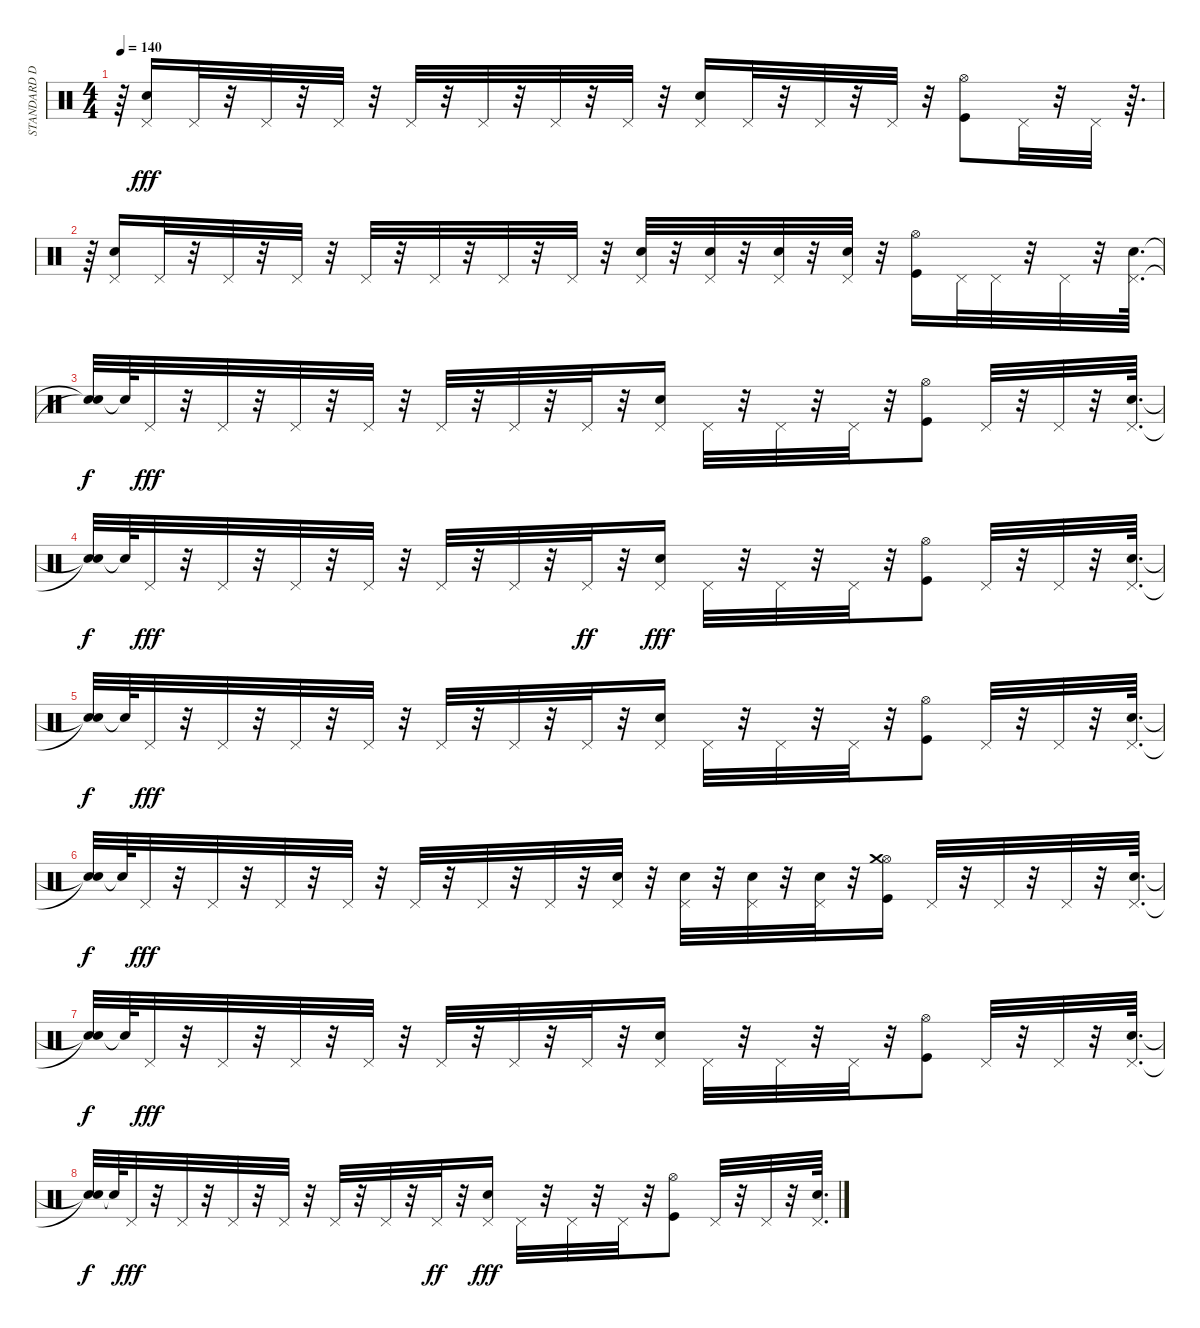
\track ("STANDARD DRUMS" "STANDARD D") {instrument percussion}
\staff {score}
\articulation defaults
\ts (4 4)
\tempo 140
\clef neutral
\ks c
r.64{dy fff} ("Snare (hit) 2" "Pedal Hi-Hat (hit)").16 "Pedal Hi-Hat (hit)".32 r.32 "Pedal Hi-Hat (hit)".32 r.32 "Pedal Hi-Hat (hit)".32 r.32 "Pedal Hi-Hat (hit)".32 r.32 "Pedal Hi-Hat (hit)".32 r.32 "Pedal Hi-Hat (hit)".32 r.32 "Pedal Hi-Hat (hit)".32 r.32 ("Snare (hit) 2" "Pedal Hi-Hat (hit)").16 "Pedal Hi-Hat (hit)".32 r.32 "Pedal Hi-Hat (hit)".32 r.32 "Pedal Hi-Hat (hit)".32 r.32 ("Kick (hit)" "Hi-Hat (open)").8 "Pedal Hi-Hat (hit)".32 r.32 "Pedal Hi-Hat (hit)".32 r.64{d} |
r.64 ("Snare (hit) 2" "Pedal Hi-Hat (hit)").16 "Pedal Hi-Hat (hit)".32 r.32 "Pedal Hi-Hat (hit)".32 r.32 "Pedal Hi-Hat (hit)".32 r.32 "Pedal Hi-Hat (hit)".32 r.32 "Pedal Hi-Hat (hit)".32 r.32 "Pedal Hi-Hat (hit)".32 r.32 "Pedal Hi-Hat (hit)".32 r.32 ("Snare (hit) 2" "Pedal Hi-Hat (hit)").32 r.32 ("Snare (hit) 2" "Pedal Hi-Hat (hit)").32 r.32 ("Snare (hit) 2" "Pedal Hi-Hat (hit)").32 r.32 ("Snare (hit) 2" "Pedal Hi-Hat (hit)").32 r.32 ("Kick (hit)" "Hi-Hat (open)").16 "Pedal Hi-Hat (hit)".32 "Pedal Hi-Hat (hit)".32 r.32 "Pedal Hi-Hat (hit)".32 r.32 ("Snare (hit) 2" "Pedal Hi-Hat (hit)").64{d} |
("Snare (hit)"{t} "Snare (hit)"{t}).32{dy f} "Snare (hit)"{t}.64 "Pedal Hi-Hat (hit)".32{dy fff} r.32 "Pedal Hi-Hat (hit)".32 r.32 "Pedal Hi-Hat (hit)".32 r.32 "Pedal Hi-Hat (hit)".32 r.32 "Pedal Hi-Hat (hit)".32 r.32 "Pedal Hi-Hat (hit)".32 r.32 "Pedal Hi-Hat (hit)".32 r.32 ("Snare (hit) 2" "Pedal Hi-Hat (hit)").16 "Pedal Hi-Hat (hit)".32 r.32 "Pedal Hi-Hat (hit)".32 r.32 "Pedal Hi-Hat (hit)".32 r.32 ("Kick (hit)" "Hi-Hat (open)").8 "Pedal Hi-Hat (hit)".32 r.32 "Pedal Hi-Hat (hit)".32 r.32 ("Snare (hit) 2" "Pedal Hi-Hat (hit)").64{d} |
("Snare (hit)"{t} "Snare (hit)"{t}).32{dy f} "Snare (hit)"{t}.64 "Pedal Hi-Hat (hit)".32{dy fff} r.32 "Pedal Hi-Hat (hit)".32 r.32 "Pedal Hi-Hat (hit)".32 r.32 "Pedal Hi-Hat (hit)".32 r.32 "Pedal Hi-Hat (hit)".32 r.32 "Pedal Hi-Hat (hit)".32 r.32 "Pedal Hi-Hat (hit)".32{dy ff} r.32 ("Snare (hit) 2" "Pedal Hi-Hat (hit)").16{dy fff} "Pedal Hi-Hat (hit)".32 r.32 "Pedal Hi-Hat (hit)".32 r.32 "Pedal Hi-Hat (hit)".32 r.32 ("Kick (hit)" "Hi-Hat (open)").8 "Pedal Hi-Hat (hit)".32 r.32 "Pedal Hi-Hat (hit)".32 r.32 ("Snare (hit) 2" "Pedal Hi-Hat (hit)").64{d} |
("Snare (hit)"{t} "Snare (hit)"{t}).32{dy f} "Snare (hit)"{t}.64 "Pedal Hi-Hat (hit)".32{dy fff} r.32 "Pedal Hi-Hat (hit)".32 r.32 "Pedal Hi-Hat (hit)".32 r.32 "Pedal Hi-Hat (hit)".32 r.32 "Pedal Hi-Hat (hit)".32 r.32 "Pedal Hi-Hat (hit)".32 r.32 "Pedal Hi-Hat (hit)".32 r.32 ("Snare (hit) 2" "Pedal Hi-Hat (hit)").16 "Pedal Hi-Hat (hit)".32 r.32 "Pedal Hi-Hat (hit)".32 r.32 "Pedal Hi-Hat (hit)".32 r.32 ("Kick (hit)" "Hi-Hat (open)").8 "Pedal Hi-Hat (hit)".32 r.32 "Pedal Hi-Hat (hit)".32 r.32 ("Snare (hit) 2" "Pedal Hi-Hat (hit)").64{d} |
("Snare (hit)"{t} "Snare (hit)"{t}).32{dy f} "Snare (hit)"{t}.64 "Pedal Hi-Hat (hit)".32{dy fff} r.32 "Pedal Hi-Hat (hit)".32 r.32 "Pedal Hi-Hat (hit)".32 r.32 "Pedal Hi-Hat (hit)".32 r.32 "Pedal Hi-Hat (hit)".32 r.32 "Pedal Hi-Hat (hit)".32 r.32 "Pedal Hi-Hat (hit)".32 r.32 ("Snare (hit) 2" "Pedal Hi-Hat (hit)").32 r.32 ("Snare (hit) 2" "Pedal Hi-Hat (hit)").32 r.32 ("Snare (hit) 2" "Pedal Hi-Hat (hit)").32 r.32 ("Snare (hit) 2" "Pedal Hi-Hat (hit)").32 r.32 ("Kick (hit)" "Hi-Hat (open)" "Crash medium (hit)").16 "Pedal Hi-Hat (hit)".32 r.32 "Pedal Hi-Hat (hit)".32 r.32 "Pedal Hi-Hat (hit)".32 r.32 ("Snare (hit) 2" "Pedal Hi-Hat (hit)").64{d} |
("Snare (hit)"{t} "Snare (hit)"{t}).32{dy f} "Snare (hit)"{t}.64 "Pedal Hi-Hat (hit)".32{dy fff} r.32 "Pedal Hi-Hat (hit)".32 r.32 "Pedal Hi-Hat (hit)".32 r.32 "Pedal Hi-Hat (hit)".32 r.32 "Pedal Hi-Hat (hit)".32 r.32 "Pedal Hi-Hat (hit)".32 r.32 "Pedal Hi-Hat (hit)".32 r.32 ("Snare (hit) 2" "Pedal Hi-Hat (hit)").16 "Pedal Hi-Hat (hit)".32 r.32 "Pedal Hi-Hat (hit)".32 r.32 "Pedal Hi-Hat (hit)".32 r.32 ("Kick (hit)" "Hi-Hat (open)").8 "Pedal Hi-Hat (hit)".32 r.32 "Pedal Hi-Hat (hit)".32 r.32 ("Snare (hit) 2" "Pedal Hi-Hat (hit)").64{d} |
("Snare (hit)"{t} "Snare (hit)"{t}).32{dy f} "Snare (hit)"{t}.64 "Pedal Hi-Hat (hit)".32{dy fff} r.32 "Pedal Hi-Hat (hit)".32 r.32 "Pedal Hi-Hat (hit)".32 r.32 "Pedal Hi-Hat (hit)".32 r.32 "Pedal Hi-Hat (hit)".32 r.32 "Pedal Hi-Hat (hit)".32 r.32 "Pedal Hi-Hat (hit)".32{dy ff} r.32 ("Snare (hit) 2" "Pedal Hi-Hat (hit)").16{dy fff} "Pedal Hi-Hat (hit)".32 r.32 "Pedal Hi-Hat (hit)".32 r.32 "Pedal Hi-Hat (hit)".32 r.32 ("Kick (hit)" "Hi-Hat (open)").8 "Pedal Hi-Hat (hit)".32 r.32 "Pedal Hi-Hat (hit)".32 r.32 ("Snare (hit) 2" "Pedal Hi-Hat (hit)").64{d}
